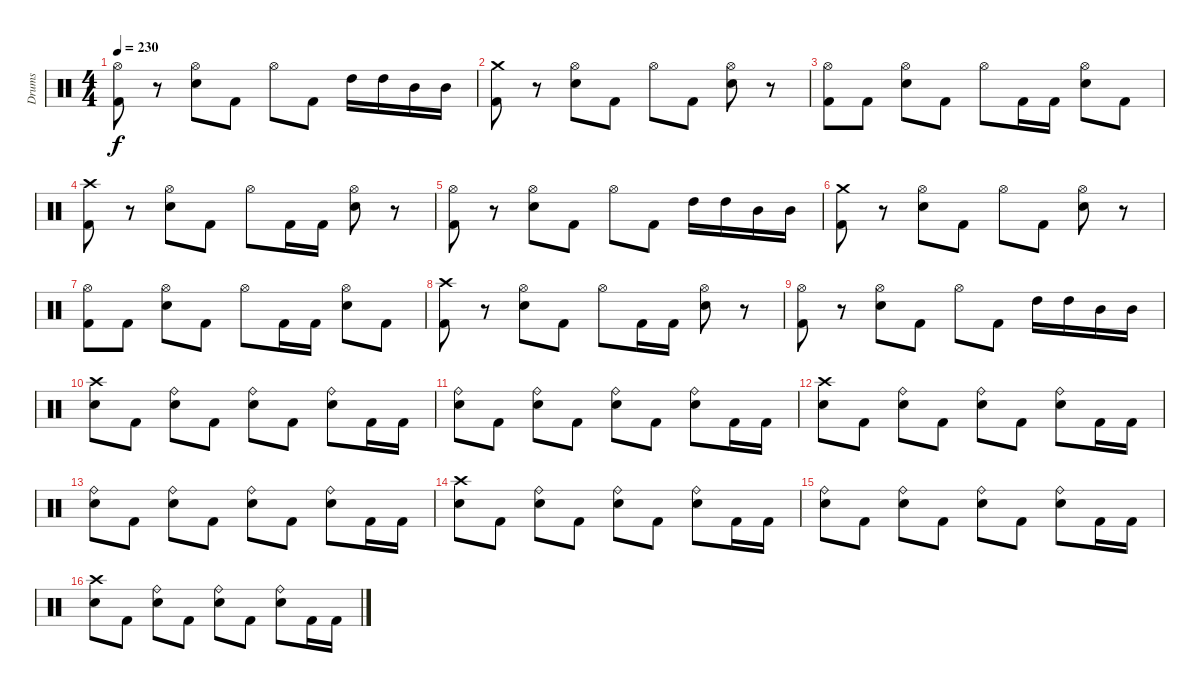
\track ("Drums" "Drums") {instrument percussion}
\staff {score}
\articulation defaults
\ts (4 4)
\tempo 230
\clef neutral
\ks c
("Hi-Hat (open)" "Kick (hit) 2").8{dy f} r.8 ("Hi-Hat (open)" "Electric Snare (hit)").8 "Kick (hit) 2".8 "Hi-Hat (open)".8 "Kick (hit) 2".8 "High Tom (hit)".16 "High Tom (hit)".16 "Mid Tom (hit)".16 "Mid Tom (hit)".16 |
("Crash medium (hit)" "Kick (hit) 2").8 r.8 ("Hi-Hat (open)" "Electric Snare (hit)").8 "Kick (hit) 2".8 "Hi-Hat (open)".8 "Kick (hit) 2".8 ("Hi-Hat (open)" "Electric Snare (hit)").8 r.8 |
("Hi-Hat (open)" "Kick (hit) 2").8 "Kick (hit) 2".8 ("Hi-Hat (open)" "Electric Snare (hit)").8 "Kick (hit) 2".8 "Hi-Hat (open)".8 "Kick (hit) 2".16 "Kick (hit) 2".16 ("Hi-Hat (open)" "Electric Snare (hit)").8 "Kick (hit) 2".8 |
("Crash high (hit)" "Kick (hit) 2").8 r.8 ("Hi-Hat (open)" "Electric Snare (hit)").8 "Kick (hit) 2".8 "Hi-Hat (open)".8 "Kick (hit) 2".16 "Kick (hit) 2".16 ("Hi-Hat (open)" "Electric Snare (hit)").8 r.8 |
("Hi-Hat (open)" "Kick (hit) 2").8 r.8 ("Hi-Hat (open)" "Electric Snare (hit)").8 "Kick (hit) 2".8 "Hi-Hat (open)".8 "Kick (hit) 2".8 "High Tom (hit)".16 "High Tom (hit)".16 "Mid Tom (hit)".16 "Mid Tom (hit)".16 |
("Crash medium (hit)" "Kick (hit) 2").8 r.8 ("Hi-Hat (open)" "Electric Snare (hit)").8 "Kick (hit) 2".8 "Hi-Hat (open)".8 "Kick (hit) 2".8 ("Hi-Hat (open)" "Electric Snare (hit)").8 r.8 |
("Hi-Hat (open)" "Kick (hit) 2").8 "Kick (hit) 2".8 ("Hi-Hat (open)" "Electric Snare (hit)").8 "Kick (hit) 2".8 "Hi-Hat (open)".8 "Kick (hit) 2".16 "Kick (hit) 2".16 ("Hi-Hat (open)" "Electric Snare (hit)").8 "Kick (hit) 2".8 |
("Crash high (hit)" "Kick (hit) 2").8 r.8 ("Hi-Hat (open)" "Electric Snare (hit)").8 "Kick (hit) 2".8 "Hi-Hat (open)".8 "Kick (hit) 2".16 "Kick (hit) 2".16 ("Hi-Hat (open)" "Electric Snare (hit)").8 r.8 |
("Hi-Hat (open)" "Kick (hit) 2").8 r.8 ("Hi-Hat (open)" "Electric Snare (hit)").8 "Kick (hit) 2".8 "Hi-Hat (open)".8 "Kick (hit) 2".8 "High Tom (hit)".16 "High Tom (hit)".16 "Mid Tom (hit)".16 "Mid Tom (hit)".16 |
("Crash high (hit)" "Electric Snare (hit)").8 "Kick (hit) 2".8 ("Ride (bell)" "Electric Snare (hit)").8 "Kick (hit) 2".8 ("Ride (bell)" "Electric Snare (hit)").8 "Kick (hit) 2".8 ("Ride (bell)" "Electric Snare (hit)").8 "Kick (hit) 2".16 "Kick (hit) 2".16 |
("Ride (bell)" "Electric Snare (hit)").8 "Kick (hit) 2".8 ("Ride (bell)" "Electric Snare (hit)").8 "Kick (hit) 2".8 ("Ride (bell)" "Electric Snare (hit)").8 "Kick (hit) 2".8 ("Ride (bell)" "Electric Snare (hit)").8 "Kick (hit) 2".16 "Kick (hit) 2".16 |
("Crash high (hit)" "Electric Snare (hit)").8 "Kick (hit) 2".8 ("Ride (bell)" "Electric Snare (hit)").8 "Kick (hit) 2".8 ("Ride (bell)" "Electric Snare (hit)").8 "Kick (hit) 2".8 ("Ride (bell)" "Electric Snare (hit)").8 "Kick (hit) 2".16 "Kick (hit) 2".16 |
("Ride (bell)" "Electric Snare (hit)").8 "Kick (hit) 2".8 ("Ride (bell)" "Electric Snare (hit)").8 "Kick (hit) 2".8 ("Ride (bell)" "Electric Snare (hit)").8 "Kick (hit) 2".8 ("Ride (bell)" "Electric Snare (hit)").8 "Kick (hit) 2".16 "Kick (hit) 2".16 |
("Crash high (hit)" "Electric Snare (hit)").8 "Kick (hit) 2".8 ("Ride (bell)" "Electric Snare (hit)").8 "Kick (hit) 2".8 ("Ride (bell)" "Electric Snare (hit)").8 "Kick (hit) 2".8 ("Ride (bell)" "Electric Snare (hit)").8 "Kick (hit) 2".16 "Kick (hit) 2".16 |
("Ride (bell)" "Electric Snare (hit)").8 "Kick (hit) 2".8 ("Ride (bell)" "Electric Snare (hit)").8 "Kick (hit) 2".8 ("Ride (bell)" "Electric Snare (hit)").8 "Kick (hit) 2".8 ("Ride (bell)" "Electric Snare (hit)").8 "Kick (hit) 2".16 "Kick (hit) 2".16 |
("Crash high (hit)" "Electric Snare (hit)").8 "Kick (hit) 2".8 ("Ride (bell)" "Electric Snare (hit)").8 "Kick (hit) 2".8 ("Ride (bell)" "Electric Snare (hit)").8 "Kick (hit) 2".8 ("Ride (bell)" "Electric Snare (hit)").8 "Kick (hit) 2".16 "Kick (hit) 2".16
